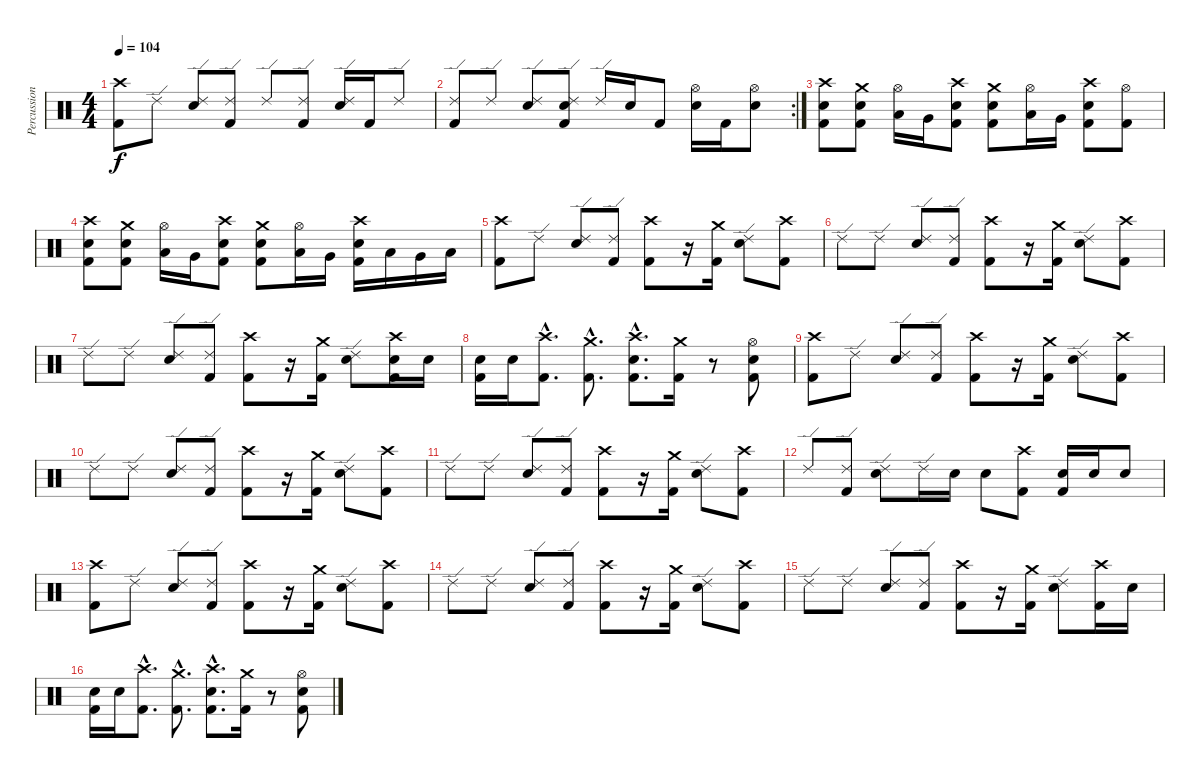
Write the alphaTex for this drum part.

\track ("Percussion" "Percussion") {instrument percussion}
\staff {score}
\articulation defaults
\ts (4 4)
\tempo 104
\clef neutral
\ks c
("Crash high (hit)" "Kick (hit) 2").8{dy f} "Ride (edge) 2".8 ("Ride (edge) 2" "Electric Snare (hit)").8 ("Ride (edge) 2" "Kick (hit) 2").8 "Ride (edge) 2".8 ("Ride (edge) 2" "Kick (hit) 2").8 ("Ride (edge) 2" "Electric Snare (hit)").16 "Kick (hit) 2".16 "Ride (edge) 2".8 |
\rc 2
("Ride (edge) 2" "Kick (hit) 2").8 "Ride (edge) 2".8 ("Ride (edge) 2" "Electric Snare (hit)").8 ("Ride (edge) 2" "Electric Snare (hit)" "Kick (hit) 2").8 "Ride (edge) 2".16 "Electric Snare (hit)".16 "Kick (hit) 2".8 ("Hi-Hat (open)" "Electric Snare (hit)").16 "Kick (hit) 2".16 ("Hi-Hat (open)" "Electric Snare (hit)").8 |
("Crash high (hit)" "Electric Snare (hit)" "Kick (hit) 2").8 ("Crash medium (hit)" "Electric Snare (hit)" "Kick (hit) 2").8 ("Hi-Hat (open)" "Low Tom (hit)").16 "Very Low Tom (hit)".16 ("Crash high (hit)" "Electric Snare (hit)" "Kick (hit) 2").8 ("Crash medium (hit)" "Electric Snare (hit)" "Kick (hit) 2").8 ("Hi-Hat (open)" "Low Tom (hit)").16 "Very Low Tom (hit)".16 ("Crash high (hit)" "Electric Snare (hit)" "Kick (hit) 2").8 ("Hi-Hat (open)" "Kick (hit) 2").8 |
("Crash high (hit)" "Electric Snare (hit)" "Kick (hit) 2").8 ("Crash medium (hit)" "Electric Snare (hit)" "Kick (hit) 2").8 ("Hi-Hat (open)" "Low Tom (hit)").16 "Very Low Tom (hit)".16 ("Crash high (hit)" "Electric Snare (hit)" "Kick (hit) 2").8 ("Crash medium (hit)" "Electric Snare (hit)" "Kick (hit) 2").8 ("Hi-Hat (open)" "Low Tom (hit)").16 "Very Low Tom (hit)".16 ("Crash high (hit)" "Electric Snare (hit)" "Kick (hit) 2").16 "Low Tom (hit)".16 "Very Low Tom (hit)".16 "Low Floor Tom (hit)".16 |
("Crash high (hit)" "Kick (hit) 2").8 "Ride (edge) 2".8 ("Ride (edge) 2" "Electric Snare (hit)").8 ("Ride (edge) 2" "Kick (hit) 2").8 ("Crash high (hit)" "Kick (hit) 2").8 r.16 ("Crash medium (hit)" "Kick (hit) 2").16 ("Ride (edge) 2" "Electric Snare (hit)").8 ("Crash high (hit)" "Kick (hit) 2").8 |
"Ride (edge) 2".8 "Ride (edge) 2".8 ("Ride (edge) 2" "Electric Snare (hit)").8 ("Ride (edge) 2" "Kick (hit) 2").8 ("Crash high (hit)" "Kick (hit) 2").8 r.16 ("Crash medium (hit)" "Kick (hit) 2").16 ("Ride (edge) 2" "Electric Snare (hit)").8 ("Crash high (hit)" "Kick (hit) 2").8 |
"Ride (edge) 2".8 "Ride (edge) 2".8 ("Ride (edge) 2" "Electric Snare (hit)").8 ("Ride (edge) 2" "Kick (hit) 2").8 ("Crash high (hit)" "Kick (hit) 2").8 r.16 ("Crash medium (hit)" "Kick (hit) 2").16 ("Ride (edge) 2" "Electric Snare (hit)").8 ("Crash high (hit)" "Electric Snare (hit)" "Kick (hit) 2").16 "Electric Snare (hit)".16 |
("Electric Snare (hit)" "Kick (hit) 2").16 "Electric Snare (hit)".16 ("Crash high (hit)"{hac} "Kick (hit) 2"{hac}).8{d} ("Crash medium (hit)"{hac} "Kick (hit) 2"{hac}).8{d} ("Crash high (hit)"{hac} "Electric Snare (hit)"{hac} "Kick (hit) 2"{hac}).8{d} ("Crash medium (hit)" "Kick (hit) 2").16 r.8 ("Hi-Hat (open)" "Electric Snare (hit)" "Kick (hit) 2").8 |
("Crash high (hit)" "Kick (hit) 2").8 "Ride (edge) 2".8 ("Ride (edge) 2" "Electric Snare (hit)").8 ("Ride (edge) 2" "Kick (hit) 2").8 ("Crash high (hit)" "Kick (hit) 2").8 r.16 ("Crash medium (hit)" "Kick (hit) 2").16 ("Ride (edge) 2" "Electric Snare (hit)").8 ("Crash high (hit)" "Kick (hit) 2").8 |
"Ride (edge) 2".8 "Ride (edge) 2".8 ("Ride (edge) 2" "Electric Snare (hit)").8 ("Ride (edge) 2" "Kick (hit) 2").8 ("Crash high (hit)" "Kick (hit) 2").8 r.16 ("Crash medium (hit)" "Kick (hit) 2").16 ("Ride (edge) 2" "Electric Snare (hit)").8 ("Crash high (hit)" "Kick (hit) 2").8 |
"Ride (edge) 2".8 "Ride (edge) 2".8 ("Ride (edge) 2" "Electric Snare (hit)").8 ("Ride (edge) 2" "Kick (hit) 2").8 ("Crash high (hit)" "Kick (hit) 2").8 r.16 ("Crash medium (hit)" "Kick (hit) 2").16 ("Ride (edge) 2" "Electric Snare (hit)").8 ("Crash high (hit)" "Kick (hit) 2").8 |
"Ride (edge) 2".8 ("Ride (edge) 2" "Kick (hit) 2").8 ("Ride (edge) 2" "Electric Snare (hit)").8 "Ride (edge) 2".16 "Electric Snare (hit)".16 "Electric Snare (hit)".8 ("Crash high (hit)" "Kick (hit) 2").8 ("Electric Snare (hit)" "Kick (hit) 2").16 "Electric Snare (hit)".16 "Electric Snare (hit)".8 |
("Crash high (hit)" "Kick (hit) 2").8 "Ride (edge) 2".8 ("Ride (edge) 2" "Electric Snare (hit)").8 ("Ride (edge) 2" "Kick (hit) 2").8 ("Crash high (hit)" "Kick (hit) 2").8 r.16 ("Crash medium (hit)" "Kick (hit) 2").16 ("Ride (edge) 2" "Electric Snare (hit)").8 ("Crash high (hit)" "Kick (hit) 2").8 |
"Ride (edge) 2".8 "Ride (edge) 2".8 ("Ride (edge) 2" "Electric Snare (hit)").8 ("Ride (edge) 2" "Kick (hit) 2").8 ("Crash high (hit)" "Kick (hit) 2").8 r.16 ("Crash medium (hit)" "Kick (hit) 2").16 ("Ride (edge) 2" "Electric Snare (hit)").8 ("Crash high (hit)" "Kick (hit) 2").8 |
"Ride (edge) 2".8 "Ride (edge) 2".8 ("Ride (edge) 2" "Electric Snare (hit)").8 ("Ride (edge) 2" "Kick (hit) 2").8 ("Crash high (hit)" "Kick (hit) 2").8 r.16 ("Crash medium (hit)" "Kick (hit) 2").16 ("Ride (edge) 2" "Electric Snare (hit)").8 ("Crash high (hit)" "Kick (hit) 2").16 "Electric Snare (hit)".16 |
("Electric Snare (hit)" "Kick (hit) 2").16 "Electric Snare (hit)".16 ("Crash high (hit)"{hac} "Kick (hit) 2"{hac}).8{d} ("Crash medium (hit)"{hac} "Kick (hit) 2"{hac}).8{d} ("Crash high (hit)"{hac} "Electric Snare (hit)"{hac} "Kick (hit) 2"{hac}).8{d} ("Crash medium (hit)" "Kick (hit) 2").16 r.8 ("Hi-Hat (open)" "Electric Snare (hit)" "Kick (hit) 2").8
